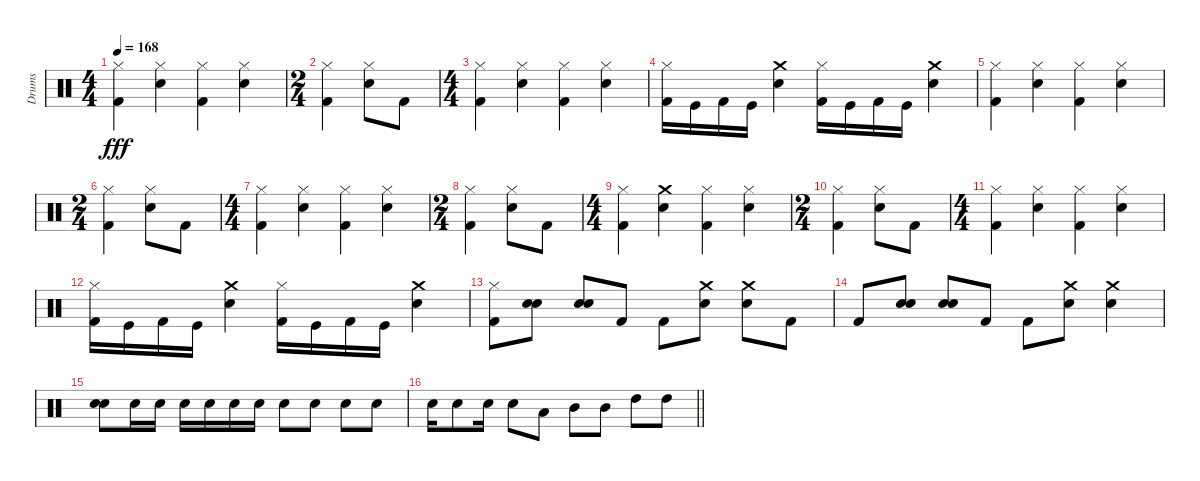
\track ("Drums" "Drums") {instrument percussion}
\staff {score}
\articulation defaults
\ts (4 4)
\tempo 168
\clef neutral
\ks c
("Kick (hit) 2" "Hi-Hat (closed)").4{dy fff} ("Snare (hit) 2" "Hi-Hat (closed)").4 ("Kick (hit) 2" "Hi-Hat (closed)").4 ("Snare (hit) 2" "Hi-Hat (closed)").4 |
\ts (2 4)
("Hi-Hat (closed)" "Kick (hit) 2").4 ("Snare (hit) 2" "Hi-Hat (closed)").8 "Kick (hit) 2".8 |
\ts (4 4)
("Kick (hit) 2" "Hi-Hat (closed)").4 ("Snare (hit) 2" "Hi-Hat (closed)").4 ("Kick (hit) 2" "Hi-Hat (closed)").4 ("Snare (hit) 2" "Hi-Hat (closed)").4 |
("Hi-Hat (closed)" "Kick (hit) 2").16 "Kick (hit)".16 "Kick (hit) 2".16 "Kick (hit)".16 ("Crash medium (hit)" "Snare (hit) 2").4 ("Hi-Hat (closed)" "Kick (hit) 2").16 "Kick (hit)".16 "Kick (hit) 2".16 "Kick (hit)".16 ("Crash medium (hit)" "Snare (hit) 2").4 |
("Kick (hit) 2" "Hi-Hat (closed)").4 ("Snare (hit) 2" "Hi-Hat (closed)").4 ("Kick (hit) 2" "Hi-Hat (closed)").4 ("Snare (hit) 2" "Hi-Hat (closed)").4 |
\ts (2 4)
("Hi-Hat (closed)" "Kick (hit) 2").4 ("Snare (hit) 2" "Hi-Hat (closed)").8 "Kick (hit) 2".8 |
\ts (4 4)
("Kick (hit) 2" "Hi-Hat (closed)").4 ("Snare (hit) 2" "Hi-Hat (closed)").4 ("Kick (hit) 2" "Hi-Hat (closed)").4 ("Snare (hit) 2" "Hi-Hat (closed)").4 |
\ts (2 4)
("Hi-Hat (closed)" "Kick (hit) 2").4 ("Snare (hit) 2" "Hi-Hat (closed)").8 "Kick (hit) 2".8 |
\ts (4 4)
("Kick (hit) 2" "Hi-Hat (closed)").4 ("Crash medium (hit)" "Snare (hit) 2").4 ("Kick (hit) 2" "Hi-Hat (closed)").4 ("Snare (hit) 2" "Hi-Hat (closed)").4 |
\ts (2 4)
("Hi-Hat (closed)" "Kick (hit) 2").4 ("Snare (hit) 2" "Hi-Hat (closed)").8 "Kick (hit) 2".8 |
\ts (4 4)
("Kick (hit) 2" "Hi-Hat (closed)").4 ("Snare (hit) 2" "Hi-Hat (closed)").4 ("Kick (hit) 2" "Hi-Hat (closed)").4 ("Snare (hit) 2" "Hi-Hat (closed)").4 |
("Hi-Hat (closed)" "Kick (hit) 2").16 "Kick (hit)".16 "Kick (hit) 2".16 "Kick (hit)".16 ("Crash medium (hit)" "Snare (hit) 2").4 ("Hi-Hat (closed)" "Kick (hit) 2").16 "Kick (hit)".16 "Kick (hit) 2".16 "Kick (hit)".16 ("Crash medium (hit)" "Snare (hit) 2").4 |
("Kick (hit) 2" "Hi-Hat (closed)").8 ("Snare (hit) 2" "Snare (hit) 2").8 ("Snare (hit) 2" "Snare (hit) 2").8 "Kick (hit) 2".8 "Kick (hit) 2".8 ("Snare (hit) 2" "Crash medium (hit)").8 ("Snare (hit) 2" "Crash medium (hit)").8 "Kick (hit) 2".8 |
"Kick (hit) 2".8 ("Snare (hit) 2" "Snare (hit) 2").8 ("Snare (hit) 2" "Snare (hit) 2").8 "Kick (hit) 2".8 "Kick (hit) 2".8 ("Crash medium (hit)" "Snare (hit) 2").8 ("Snare (hit) 2" "Crash medium (hit)").4 |
("Snare (hit) 2" "Snare (hit) 2").8 "Snare (hit) 2".16 "Snare (hit) 2".16 "Snare (hit) 2".16 "Snare (hit) 2".16 "Snare (hit) 2".16 "Snare (hit) 2".16 "Snare (hit) 2".8 "Snare (hit) 2".8 "Snare (hit) 2".8 "Snare (hit) 2".8 |
\barLineRight lightlight "Snare (hit) 2".16 "Snare (hit) 2".8 "Snare (hit) 2".16 "Snare (hit) 2".8 "Low Tom (hit)".8 "Mid Tom (hit)".8 "Mid Tom (hit)".8 "High Tom (hit)".8 "High Tom (hit)".8
